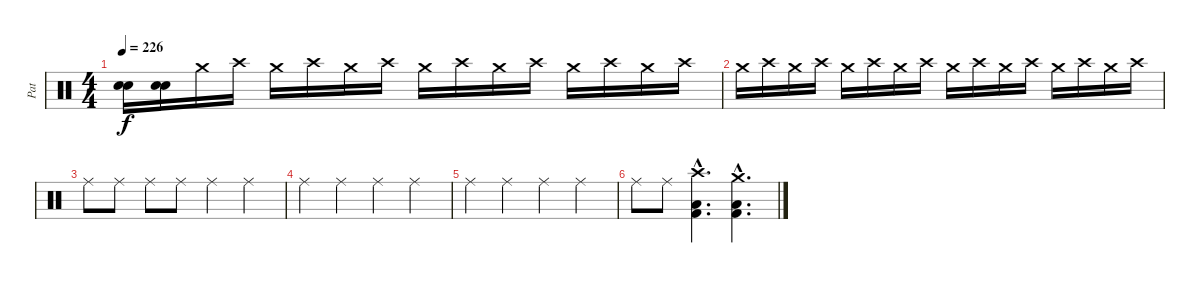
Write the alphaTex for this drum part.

\track ("Pat" "Pat") {instrument percussion}
\staff {score}
\articulation defaults
\ts (4 4)
\tempo 226
\clef neutral
\ks c
("Snare (hit) 2" "Electric Snare (hit)").16{dy f} ("Snare (hit) 2" "Electric Snare (hit)").16 "Crash medium (hit)".16 "Crash high (hit)".16 "Crash medium (hit)".16 "Crash high (hit)".16 "Crash medium (hit)".16 "Crash high (hit)".16 "Crash medium (hit)".16 "Crash high (hit)".16 "Crash medium (hit)".16 "Crash high (hit)".16 "Crash medium (hit)".16 "Crash high (hit)".16 "Crash medium (hit)".16 "Crash high (hit)".16 |
"Crash medium (hit)".16 "Crash high (hit)".16 "Crash medium (hit)".16 "Crash high (hit)".16 "Crash medium (hit)".16 "Crash high (hit)".16 "Crash medium (hit)".16 "Crash high (hit)".16 "Crash medium (hit)".16 "Crash high (hit)".16 "Crash medium (hit)".16 "Crash high (hit)".16 "Crash medium (hit)".16 "Crash high (hit)".16 "Crash medium (hit)".16 "Crash high (hit)".16 |
"Ride (middle)".8 "Ride (middle)".8 "Ride (middle)".8 "Ride (middle)".8 "Ride (middle)".4 "Ride (middle)".4 |
"Ride (middle)".4 "Ride (middle)".4 "Ride (middle)".4 "Ride (middle)".4 |
"Ride (middle)".4 "Ride (middle)".4 "Ride (middle)".4 "Ride (middle)".4 |
"Ride (middle)".8 "Ride (middle)".8 ("Crash high (hit)"{hac} "Low Floor Tom (hit)"{hac} "Kick (hit) 2"{hac}).4{d} ("Crash medium (hit)"{hac} "Low Floor Tom (hit)"{hac} "Kick (hit) 2"{hac}).4{d}
